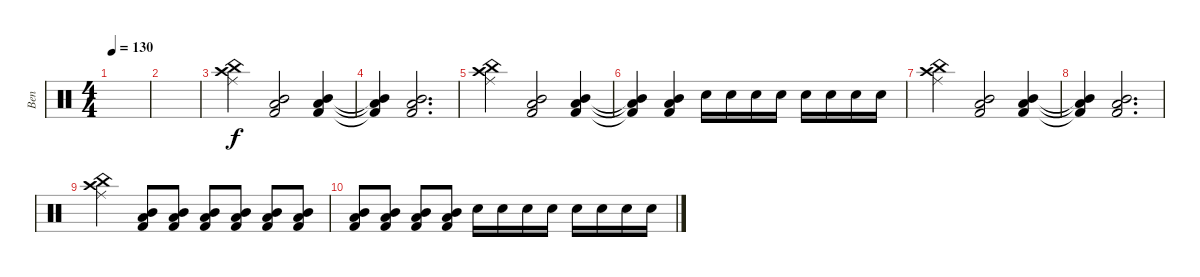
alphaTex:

\track ("Ben" "Ben") {instrument percussion}
\staff {score}
\articulation defaults
\ts (4 4)
\tempo 130
\clef neutral
\ks c
|
|
("China (hit)" "Ride (middle)" "Crash high (hit)").4 ("Mid Tom (hit)" "Low Tom (hit)" "Kick (hit) 2").2 ("Mid Tom (hit)" "Low Tom (hit)" "Kick (hit) 2").4 |
("Mid Tom (hit)"{t} "Low Tom (hit)"{t} "Kick (hit) 2"{t}).4 ("Mid Tom (hit)" "Low Tom (hit)" "Kick (hit) 2").2{d} |
("China (hit)" "Ride (middle)" "Crash high (hit)").4 ("Mid Tom (hit)" "Low Tom (hit)" "Kick (hit) 2").2 ("Mid Tom (hit)" "Low Tom (hit)" "Kick (hit) 2").4 |
("Mid Tom (hit)"{t} "Low Tom (hit)"{t} "Kick (hit) 2"{t}).4 ("Mid Tom (hit)" "Low Tom (hit)" "Kick (hit) 2").4 "Snare (hit) 2".16 "Snare (hit) 2".16 "Snare (hit) 2".16 "Snare (hit) 2".16 "Snare (hit) 2".16 "Snare (hit) 2".16 "Snare (hit) 2".16 "Snare (hit) 2".16 |
("China (hit)" "Ride (middle)" "Crash high (hit)").4 ("Mid Tom (hit)" "Low Tom (hit)" "Kick (hit) 2").2 ("Mid Tom (hit)" "Low Tom (hit)" "Kick (hit) 2").4 |
("Mid Tom (hit)"{t} "Low Tom (hit)"{t} "Kick (hit) 2"{t}).4 ("Mid Tom (hit)" "Low Tom (hit)" "Kick (hit) 2").2{d} |
("China (hit)" "Ride (middle)" "Crash high (hit)").4 ("Mid Tom (hit)" "Low Tom (hit)" "Kick (hit) 2").8 ("Mid Tom (hit)" "Low Tom (hit)" "Kick (hit) 2").8 ("Mid Tom (hit)" "Low Tom (hit)" "Kick (hit) 2").8 ("Mid Tom (hit)" "Low Tom (hit)" "Kick (hit) 2").8 ("Mid Tom (hit)" "Low Tom (hit)" "Kick (hit) 2").8 ("Mid Tom (hit)" "Low Tom (hit)" "Kick (hit) 2").8 |
("Mid Tom (hit)" "Low Tom (hit)" "Kick (hit) 2").8 ("Mid Tom (hit)" "Low Tom (hit)" "Kick (hit) 2").8 ("Mid Tom (hit)" "Low Tom (hit)" "Kick (hit) 2").8 ("Mid Tom (hit)" "Low Tom (hit)" "Kick (hit) 2").8 "Snare (hit) 2".16 "Snare (hit) 2".16 "Snare (hit) 2".16 "Snare (hit) 2".16 "Snare (hit) 2".16 "Snare (hit) 2".16 "Snare (hit) 2".16 "Snare (hit) 2".16
